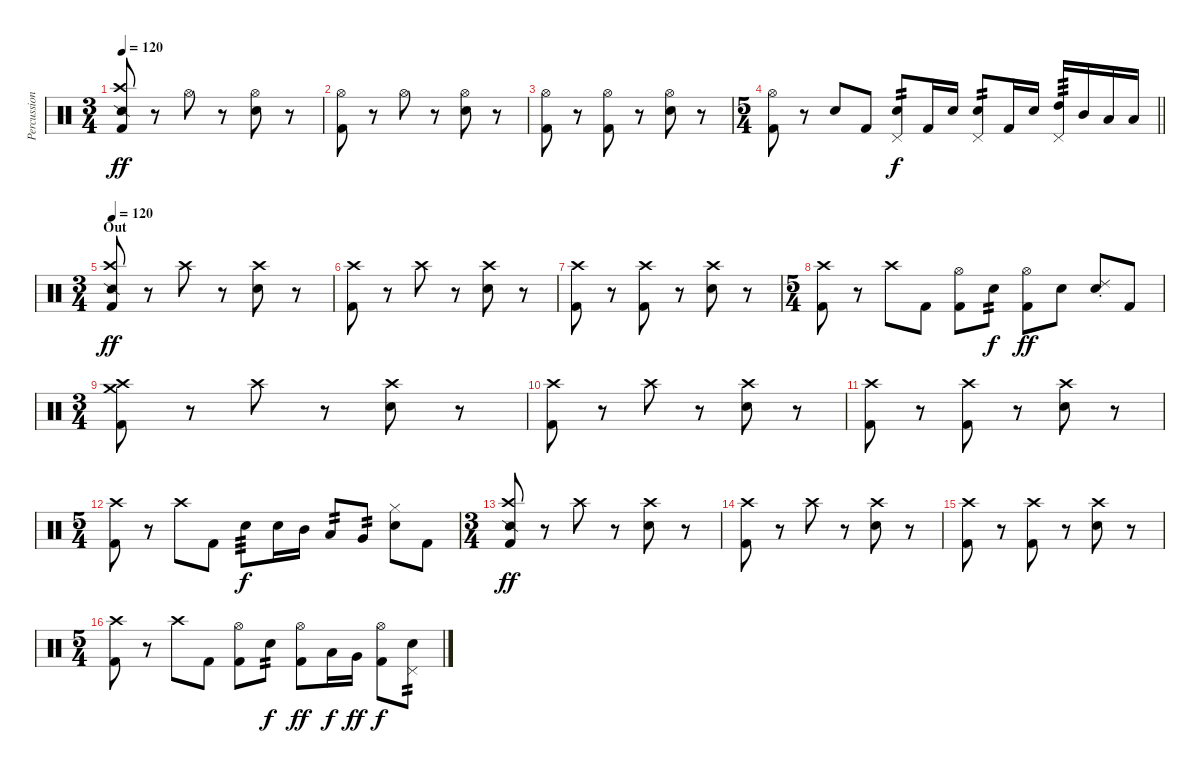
\track ("Percussion" "Percussion") {instrument percussion}
\staff {score}
\articulation defaults
\ts (3 4)
\tempo 120
\clef neutral
\ks c
("Snare (side stick) 2" "Crash high (hit)" "Kick (hit) 2").8{dy ff} r.8 "Hi-Hat (open)".8 r.8 ("Hi-Hat (open)" "Snare (hit) 2").8 r.8 |
("Hi-Hat (open)" "Kick (hit) 2").8 r.8 "Hi-Hat (open)".8 r.8 ("Hi-Hat (open)" "Snare (hit) 2").8 r.8 |
("Hi-Hat (open)" "Kick (hit) 2").8 r.8 ("Hi-Hat (open)" "Kick (hit) 2").8 r.8 ("Hi-Hat (open)" "Snare (hit) 2").8 r.8 |
\ts (5 4)
\barLineRight lightlight
("Hi-Hat (open)" "Kick (hit) 2").8 r.8 "Snare (hit)".8 "Kick (hit) 2".8 ("Pedal Hi-Hat (hit)" "Snare (hit) 2").8{tp 2 dy f} "Kick (hit) 2".16 "Snare (hit) 2".16 ("Pedal Hi-Hat (hit)" "Snare (hit) 2").8{tp 2} "Kick (hit) 2".16 "Snare (hit) 2".16 ("Pedal Hi-Hat (hit)" "High Tom (hit)").16{tp 3} "Mid Tom (hit)".16 "Low Tom (hit)".16 "Low Tom (hit)".16 |
\ts (3 4)
\section ("" "Out")
\tempo 120
("Snare (side stick) 2" "Crash high (hit)" "Kick (hit) 2").8{dy ff} r.8 "Crash high (hit)".8 r.8 ("Crash high (hit)" "Snare (hit) 2").8 r.8 |
("Crash high (hit)" "Kick (hit) 2").8 r.8 "Crash high (hit)".8 r.8 ("Crash high (hit)" "Snare (hit) 2").8 r.8 |
("Crash high (hit)" "Kick (hit) 2").8 r.8 ("Crash high (hit)" "Kick (hit) 2").8 r.8 ("Crash high (hit)" "Snare (hit) 2").8 r.8 |
\ts (5 4)
("Crash high (hit)" "Kick (hit) 2").8 r.8 "Crash high (hit)".8 "Kick (hit) 2".8 ("Hi-Hat (open)" "Kick (hit) 2").8 "Snare (hit) 2".8{tp 2 dy f} ("Hi-Hat (open)" "Kick (hit) 2").8{dy ff} "Snare (hit) 2".8 ("Ride (choke) 2" "Snare (hit) 2").8 "Kick (hit) 2".8 |
\ts (3 4)
("Crash medium (hit)" "Crash high (hit)" "Kick (hit) 2").8 r.8 "Crash high (hit)".8 r.8 ("Crash high (hit)" "Snare (hit) 2").8 r.8 |
("Crash high (hit)" "Kick (hit) 2").8 r.8 "Crash high (hit)".8 r.8 ("Crash high (hit)" "Snare (hit) 2").8 r.8 |
("Crash high (hit)" "Kick (hit) 2").8 r.8 ("Crash high (hit)" "Kick (hit) 2").8 r.8 ("Crash high (hit)" "Snare (hit) 2").8 r.8 |
\ts (5 4)
("Crash high (hit)" "Kick (hit) 2").8 r.8 "Crash high (hit)".8 "Kick (hit) 2".8 "Snare (hit) 2".8{tp 3 dy f} "Snare (hit) 2".16 "Mid Tom (hit)".16 "Low Tom (hit)".8{tp 2} "Very Low Tom (hit)".8{tp 2} ("Hi-Hat (closed)" "Snare (hit) 2").8 "Kick (hit) 2".8 |
\ts (3 4)
("Snare (side stick) 2" "Crash high (hit)" "Kick (hit) 2").8{dy ff} r.8 "Crash high (hit)".8 r.8 ("Crash high (hit)" "Snare (hit) 2").8 r.8 |
("Crash high (hit)" "Kick (hit) 2").8 r.8 "Crash high (hit)".8 r.8 ("Crash high (hit)" "Snare (hit) 2").8 r.8 |
("Crash high (hit)" "Kick (hit) 2").8 r.8 ("Crash high (hit)" "Kick (hit) 2").8 r.8 ("Crash high (hit)" "Snare (hit) 2").8 r.8 |
\ts (5 4)
("Crash high (hit)" "Kick (hit) 2").8 r.8 "Crash high (hit)".8 "Kick (hit) 2".8 ("Hi-Hat (open)" "Kick (hit) 2").8 "Snare (hit) 2".8{tp 2 dy f} ("Hi-Hat (open)" "Kick (hit) 2").8{dy ff} "Low Tom (hit)".16{dy f} "Very Low Tom (hit)".16{dy ff} ("Hi-Hat (open)" "Kick (hit) 2").8{dy f} ("Pedal Hi-Hat (hit)" "Snare (hit) 2").8{tp 2}
